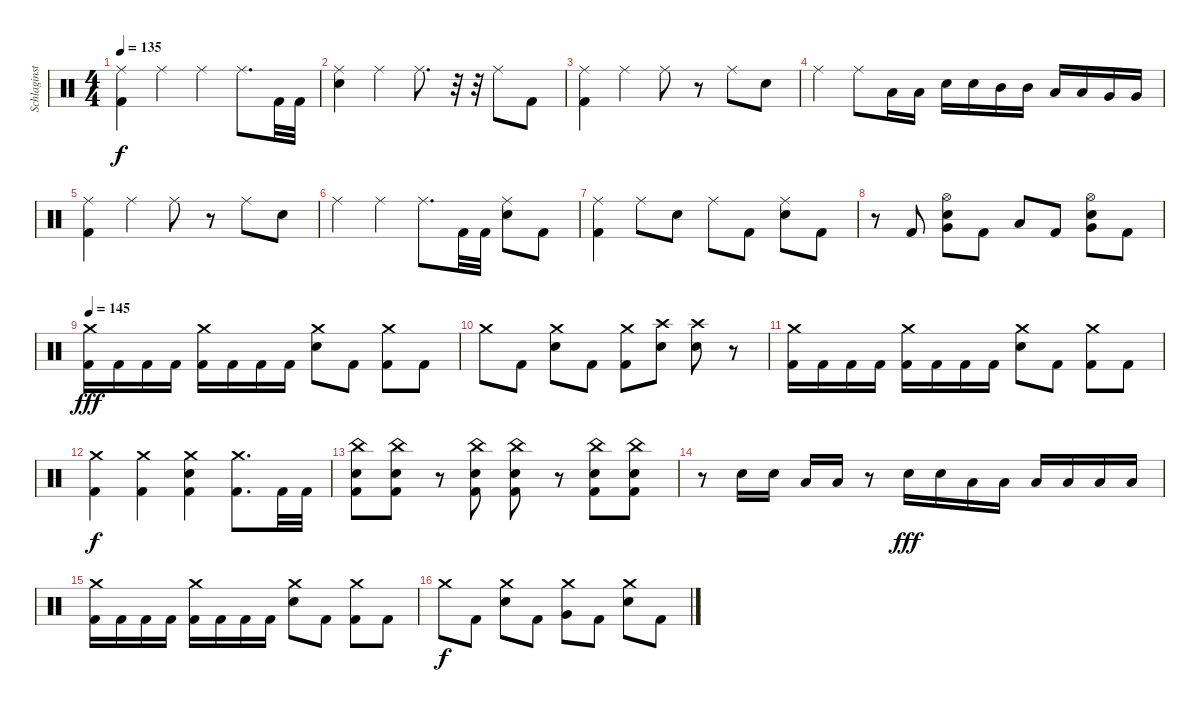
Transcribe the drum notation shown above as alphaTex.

\track ("Schlaginstrumente - Auswahl" "Schlaginst") {instrument percussion}
\staff {score}
\articulation defaults
\ts (4 4)
\tempo 135
\clef neutral
\ks c
("Ride (middle)" "Kick (hit) 2").4{dy f} "Ride (middle)".4 "Ride (middle)".4 "Ride (middle)".8{d} "Kick (hit) 2".32 "Kick (hit) 2".32 |
("Ride (middle)" "Electric Snare (hit)").4 "Ride (middle)".4 "Ride (middle)".8{d} r.32 r.32 "Ride (middle)".8 "Kick (hit) 2".8 |
("Ride (middle)" "Kick (hit) 2").4 "Ride (middle)".4 "Ride (middle)".8 r.8 "Ride (middle)".8 "Electric Snare (hit)".8 |
"Ride (middle)".4 "Ride (middle)".8 "Low Tom (hit)".16 "Low Tom (hit)".16 "Electric Snare (hit)".16 "Electric Snare (hit)".16 "Mid Tom (hit)".16 "Mid Tom (hit)".16 "Low Tom (hit)".16 "Low Tom (hit)".16 "Very Low Tom (hit)".16 "Very Low Tom (hit)".16 |
("Ride (middle)" "Kick (hit) 2").4 "Ride (middle)".4 "Ride (middle)".8 r.8 "Ride (middle)".8 "Electric Snare (hit)".8 |
"Ride (middle)".4 "Ride (middle)".4 "Ride (middle)".8{d} "Kick (hit) 2".32 "Kick (hit) 2".32 ("Ride (middle)" "Electric Snare (hit)").8 "Kick (hit) 2".8 |
("Ride (middle)" "Kick (hit) 2").4 "Ride (middle)".8 "Electric Snare (hit)".8 "Ride (middle)".8 "Kick (hit) 2".8 ("Ride (middle)" "Electric Snare (hit)").8 "Kick (hit) 2".8 |
r.8 "Kick (hit) 2".8 ("Hi-Hat (open)" "Very Low Tom (hit)" "Electric Snare (hit)").8 "Kick (hit) 2".8 "Low Tom (hit)".8 "Kick (hit) 2".8 ("Hi-Hat (open)" "Very Low Tom (hit)" "Electric Snare (hit)").8 "Kick (hit) 2".8 |
\tempo 145
("Crash medium (hit)" "Kick (hit) 2").16{dy fff} "Kick (hit) 2".16 "Kick (hit) 2".16 "Kick (hit) 2".16 ("Crash medium (hit)" "Kick (hit) 2").16 "Kick (hit) 2".16 "Kick (hit) 2".16 "Kick (hit) 2".16 ("Crash medium (hit)" "Electric Snare (hit)").8 "Kick (hit) 2".8 ("Crash medium (hit)" "Kick (hit) 2").8 "Kick (hit) 2".8 |
"Crash medium (hit)".8 "Kick (hit) 2".8 ("Crash medium (hit)" "Electric Snare (hit)").8 "Kick (hit) 2".8 ("Crash medium (hit)" "Kick (hit) 2").8 ("Crash high (hit)" "Electric Snare (hit)").8 ("Crash high (hit)" "Electric Snare (hit)").8 r.8 |
("Crash medium (hit)" "Kick (hit) 2").16 "Kick (hit) 2".16 "Kick (hit) 2".16 "Kick (hit) 2".16 ("Crash medium (hit)" "Kick (hit) 2").16 "Kick (hit) 2".16 "Kick (hit) 2".16 "Kick (hit) 2".16 ("Crash medium (hit)" "Electric Snare (hit)").8 "Kick (hit) 2".8 ("Crash medium (hit)" "Kick (hit) 2").8 "Kick (hit) 2".8 |
("Crash medium (hit)" "Kick (hit) 2").4{dy f} ("Crash medium (hit)" "Kick (hit) 2").4 ("Crash medium (hit)" "Electric Snare (hit)" "Kick (hit) 2").4 ("Crash medium (hit)" "Kick (hit) 2").8{d} "Kick (hit) 2".32 "Kick (hit) 2".32 |
("China (hit)" "Electric Snare (hit)" "Kick (hit) 2").8 ("China (hit)" "Electric Snare (hit)" "Kick (hit) 2").8 r.8 ("China (hit)" "Electric Snare (hit)" "Kick (hit) 2").8 ("China (hit)" "Electric Snare (hit)" "Kick (hit) 2").8 r.8 ("China (hit)" "Electric Snare (hit)" "Kick (hit) 2").8 ("China (hit)" "Electric Snare (hit)" "Kick (hit) 2").8 |
r.8 "Electric Snare (hit)".16 "Electric Snare (hit)".16 "Low Tom (hit)".16 "Low Tom (hit)".16 r.8 "Electric Snare (hit)".16{dy fff} "Electric Snare (hit)".16 "Low Tom (hit)".16 "Low Tom (hit)".16 "Low Tom (hit)".16 "Low Tom (hit)".16 "Low Tom (hit)".16 "Low Tom (hit)".16 |
("Crash medium (hit)" "Kick (hit) 2").16 "Kick (hit) 2".16 "Kick (hit) 2".16 "Kick (hit) 2".16 ("Crash medium (hit)" "Kick (hit) 2").16 "Kick (hit) 2".16 "Kick (hit) 2".16 "Kick (hit) 2".16 ("Crash medium (hit)" "Electric Snare (hit)").8 "Kick (hit) 2".8 ("Crash medium (hit)" "Kick (hit) 2").8 "Kick (hit) 2".8 |
"Crash medium (hit)".8{dy f} "Kick (hit) 2".8 ("Crash medium (hit)" "Electric Snare (hit)").8 "Kick (hit) 2".8 ("Crash medium (hit)" "Very Low Tom (hit)").8 "Kick (hit) 2".8 ("Crash medium (hit)" "Electric Snare (hit)").8 "Kick (hit) 2".8
